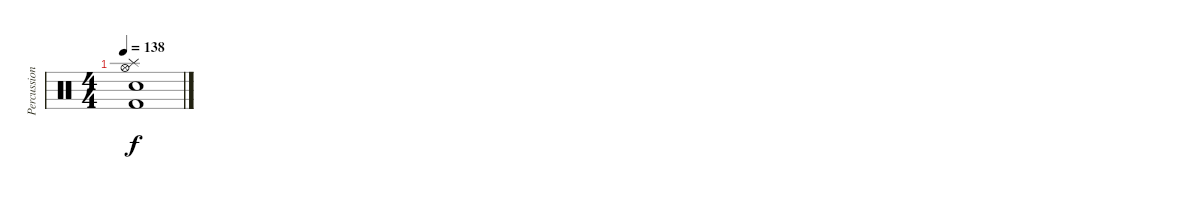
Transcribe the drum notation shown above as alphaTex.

\track ("Percussion" "Percussion") {instrument percussion}
\staff {score}
\articulation defaults
\ts (4 4)
\tempo 138
\clef neutral
\ks c
("Splash (hit)" "Hi-Hat (open)" "Electric Snare (hit)" "Kick (hit) 2").1{dy f}
